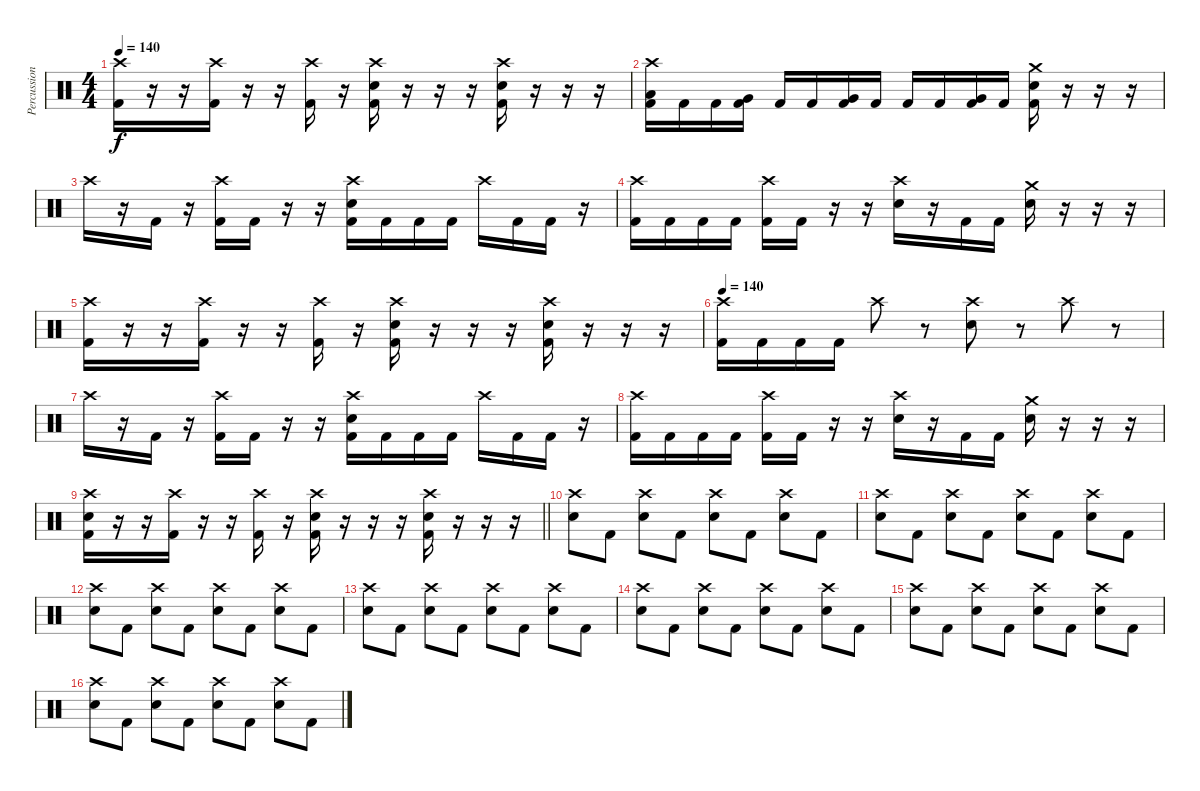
\track ("Percussion" "Percussion") {instrument percussion}
\staff {score}
\articulation defaults
\ts (4 4)
\tempo 140
\clef neutral
\ks c
("Crash high (hit)" "Kick (hit) 2").16{dy f} r.16 r.16 ("Crash high (hit)" "Kick (hit) 2").16 r.16 r.16 ("Crash high (hit)" "Kick (hit) 2").16 r.16 ("Crash high (hit)" "Snare (hit) 2" "Kick (hit) 2").16 r.16 r.16 r.16 ("Crash high (hit)" "Snare (hit) 2" "Kick (hit) 2").16 r.16 r.16 r.16 |
("Crash high (hit)" "Low Tom (hit)" "Kick (hit) 2").16 "Kick (hit) 2".16 "Kick (hit) 2".16 ("Very Low Tom (hit)" "Kick (hit) 2").16 "Kick (hit) 2".16 "Kick (hit) 2".16 ("Very Low Tom (hit)" "Kick (hit) 2").16 "Kick (hit) 2".16 "Kick (hit) 2".16 "Kick (hit) 2".16 ("Very Low Tom (hit)" "Kick (hit) 2").16 "Kick (hit) 2".16 ("Crash medium (hit)" "Snare (hit) 2" "Kick (hit) 2").16 r.16 r.16 r.16 |
"Crash high (hit)".16 r.16 "Kick (hit) 2".16 r.16 ("Crash high (hit)" "Kick (hit) 2").16 "Kick (hit) 2".16 r.16 r.16 ("Crash high (hit)" "Snare (hit) 2" "Kick (hit) 2").16 "Kick (hit) 2".16 "Kick (hit) 2".16 "Kick (hit) 2".16 "Crash high (hit)".16 "Kick (hit) 2".16 "Kick (hit) 2".16 r.16 |
("Crash high (hit)" "Kick (hit) 2").16 "Kick (hit) 2".16 "Kick (hit) 2".16 "Kick (hit) 2".16 ("Crash high (hit)" "Kick (hit) 2").16 "Kick (hit) 2".16 r.16 r.16 ("Crash high (hit)" "Snare (hit) 2").16 r.16 "Kick (hit) 2".16 "Kick (hit) 2".16 ("Crash medium (hit)" "Snare (hit) 2").16 r.16 r.16 r.16 |
("Crash high (hit)" "Kick (hit) 2").16 r.16 r.16 ("Crash high (hit)" "Kick (hit) 2").16 r.16 r.16 ("Crash high (hit)" "Kick (hit) 2").16 r.16 ("Crash high (hit)" "Snare (hit) 2" "Kick (hit) 2").16 r.16 r.16 r.16 ("Crash high (hit)" "Snare (hit) 2" "Kick (hit) 2").16 r.16 r.16 r.16 |
\tempo 140
("Crash high (hit)" "Kick (hit) 2").16 "Kick (hit) 2".16 "Kick (hit) 2".16 "Kick (hit) 2".16 "Crash high (hit)".8 r.8 ("Crash high (hit)" "Snare (hit) 2").8 r.8 "Crash high (hit)".8 r.8 |
"Crash high (hit)".16 r.16 "Kick (hit) 2".16 r.16 ("Crash high (hit)" "Kick (hit) 2").16 "Kick (hit) 2".16 r.16 r.16 ("Crash high (hit)" "Snare (hit) 2" "Kick (hit) 2").16 "Kick (hit) 2".16 "Kick (hit) 2".16 "Kick (hit) 2".16 "Crash high (hit)".16 "Kick (hit) 2".16 "Kick (hit) 2".16 r.16 |
("Crash high (hit)" "Kick (hit) 2").16 "Kick (hit) 2".16 "Kick (hit) 2".16 "Kick (hit) 2".16 ("Crash high (hit)" "Kick (hit) 2").16 "Kick (hit) 2".16 r.16 r.16 ("Crash high (hit)" "Snare (hit) 2").16 r.16 "Kick (hit) 2".16 "Kick (hit) 2".16 ("Crash medium (hit)" "Snare (hit) 2").16 r.16 r.16 r.16 |
\barLineRight lightlight
("Crash high (hit)" "Snare (hit) 2" "Kick (hit) 2").16 r.16 r.16 ("Crash high (hit)" "Kick (hit) 2").16 r.16 r.16 ("Crash high (hit)" "Kick (hit) 2").16 r.16 ("Crash high (hit)" "Snare (hit) 2" "Kick (hit) 2").16 r.16 r.16 r.16 ("Crash high (hit)" "Snare (hit) 2" "Kick (hit) 2").16 r.16 r.16 r.16 |
("Crash high (hit)" "Snare (hit) 2").8 "Kick (hit) 2".8 ("Crash high (hit)" "Snare (hit) 2").8 "Kick (hit) 2".8 ("Crash high (hit)" "Snare (hit) 2").8 "Kick (hit) 2".8 ("Crash high (hit)" "Snare (hit) 2").8 "Kick (hit) 2".8 |
("Crash high (hit)" "Snare (hit) 2").8 "Kick (hit) 2".8 ("Crash high (hit)" "Snare (hit) 2").8 "Kick (hit) 2".8 ("Crash high (hit)" "Snare (hit) 2").8 "Kick (hit) 2".8 ("Crash high (hit)" "Snare (hit) 2").8 "Kick (hit) 2".8 |
("Crash high (hit)" "Snare (hit) 2").8 "Kick (hit) 2".8 ("Crash high (hit)" "Snare (hit) 2").8 "Kick (hit) 2".8 ("Crash high (hit)" "Snare (hit) 2").8 "Kick (hit) 2".8 ("Crash high (hit)" "Snare (hit) 2").8 "Kick (hit) 2".8 |
("Crash high (hit)" "Snare (hit) 2").8 "Kick (hit) 2".8 ("Crash high (hit)" "Snare (hit) 2").8 "Kick (hit) 2".8 ("Crash high (hit)" "Snare (hit) 2").8 "Kick (hit) 2".8 ("Crash high (hit)" "Snare (hit) 2").8 "Kick (hit) 2".8 |
("Crash high (hit)" "Snare (hit) 2").8 "Kick (hit) 2".8 ("Crash high (hit)" "Snare (hit) 2").8 "Kick (hit) 2".8 ("Crash high (hit)" "Snare (hit) 2").8 "Kick (hit) 2".8 ("Crash high (hit)" "Snare (hit) 2").8 "Kick (hit) 2".8 |
("Crash high (hit)" "Snare (hit) 2").8 "Kick (hit) 2".8 ("Crash high (hit)" "Snare (hit) 2").8 "Kick (hit) 2".8 ("Crash high (hit)" "Snare (hit) 2").8 "Kick (hit) 2".8 ("Crash high (hit)" "Snare (hit) 2").8 "Kick (hit) 2".8 |
("Crash high (hit)" "Snare (hit) 2").8 "Kick (hit) 2".8 ("Crash high (hit)" "Snare (hit) 2").8 "Kick (hit) 2".8 ("Crash high (hit)" "Snare (hit) 2").8 "Kick (hit) 2".8 ("Crash high (hit)" "Snare (hit) 2").8 "Kick (hit) 2".8
